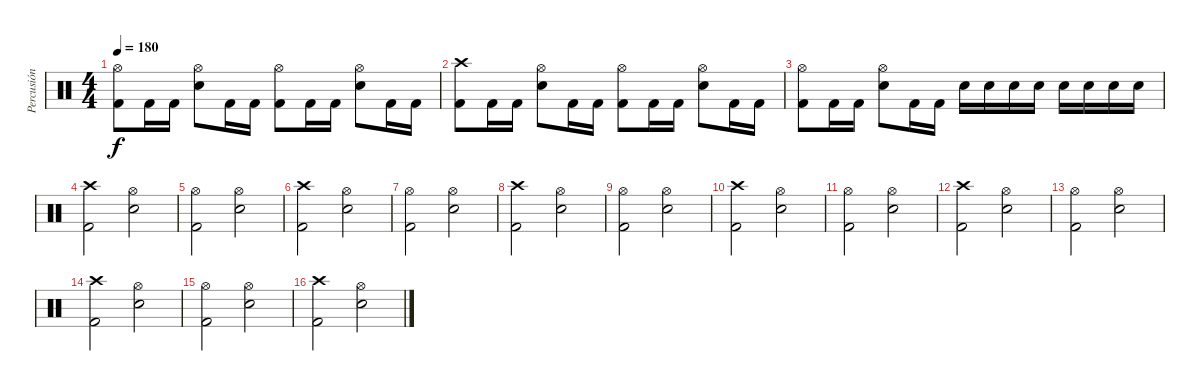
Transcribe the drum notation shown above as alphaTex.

\track ("Percusión" "Percusión") {instrument percussion}
\staff {score}
\articulation defaults
\ts (4 4)
\tempo 180
\clef neutral
\ks c
("Hi-Hat (open)" "Kick (hit) 2").8{dy f} "Kick (hit) 2".16 "Kick (hit) 2".16 ("Hi-Hat (open)" "Electric Snare (hit)").8 "Kick (hit) 2".16 "Kick (hit) 2".16 ("Hi-Hat (open)" "Kick (hit) 2").8 "Kick (hit) 2".16 "Kick (hit) 2".16 ("Hi-Hat (open)" "Electric Snare (hit)").8 "Kick (hit) 2".16 "Kick (hit) 2".16 |
("Crash high (hit)" "Kick (hit) 2").8 "Kick (hit) 2".16 "Kick (hit) 2".16 ("Hi-Hat (open)" "Electric Snare (hit)").8 "Kick (hit) 2".16 "Kick (hit) 2".16 ("Hi-Hat (open)" "Kick (hit) 2").8 "Kick (hit) 2".16 "Kick (hit) 2".16 ("Hi-Hat (open)" "Electric Snare (hit)").8 "Kick (hit) 2".16 "Kick (hit) 2".16 |
("Hi-Hat (open)" "Kick (hit) 2").8 "Kick (hit) 2".16 "Kick (hit) 2".16 ("Hi-Hat (open)" "Electric Snare (hit)").8 "Kick (hit) 2".16 "Kick (hit) 2".16 "Electric Snare (hit)".16 "Electric Snare (hit)".16 "Electric Snare (hit)".16 "Electric Snare (hit)".16 "Electric Snare (hit)".16 "Electric Snare (hit)".16 "Electric Snare (hit)".16 "Electric Snare (hit)".16 |
("Crash high (hit)" "Kick (hit) 2").2 ("Hi-Hat (open)" "Electric Snare (hit)").2 |
("Hi-Hat (open)" "Kick (hit) 2").2 ("Hi-Hat (open)" "Electric Snare (hit)").2 |
("Crash high (hit)" "Kick (hit) 2").2 ("Hi-Hat (open)" "Electric Snare (hit)").2 |
("Hi-Hat (open)" "Kick (hit) 2").2 ("Hi-Hat (open)" "Electric Snare (hit)").2 |
("Crash high (hit)" "Kick (hit) 2").2 ("Hi-Hat (open)" "Electric Snare (hit)").2 |
("Hi-Hat (open)" "Kick (hit) 2").2 ("Hi-Hat (open)" "Electric Snare (hit)").2 |
("Crash high (hit)" "Kick (hit) 2").2 ("Hi-Hat (open)" "Electric Snare (hit)").2 |
("Hi-Hat (open)" "Kick (hit) 2").2 ("Hi-Hat (open)" "Electric Snare (hit)").2 |
("Crash high (hit)" "Kick (hit) 2").2 ("Hi-Hat (open)" "Electric Snare (hit)").2 |
("Hi-Hat (open)" "Kick (hit) 2").2 ("Hi-Hat (open)" "Electric Snare (hit)").2 |
("Crash high (hit)" "Kick (hit) 2").2 ("Hi-Hat (open)" "Electric Snare (hit)").2 |
("Hi-Hat (open)" "Kick (hit) 2").2 ("Hi-Hat (open)" "Electric Snare (hit)").2 |
("Crash high (hit)" "Kick (hit) 2").2 ("Hi-Hat (open)" "Electric Snare (hit)").2
